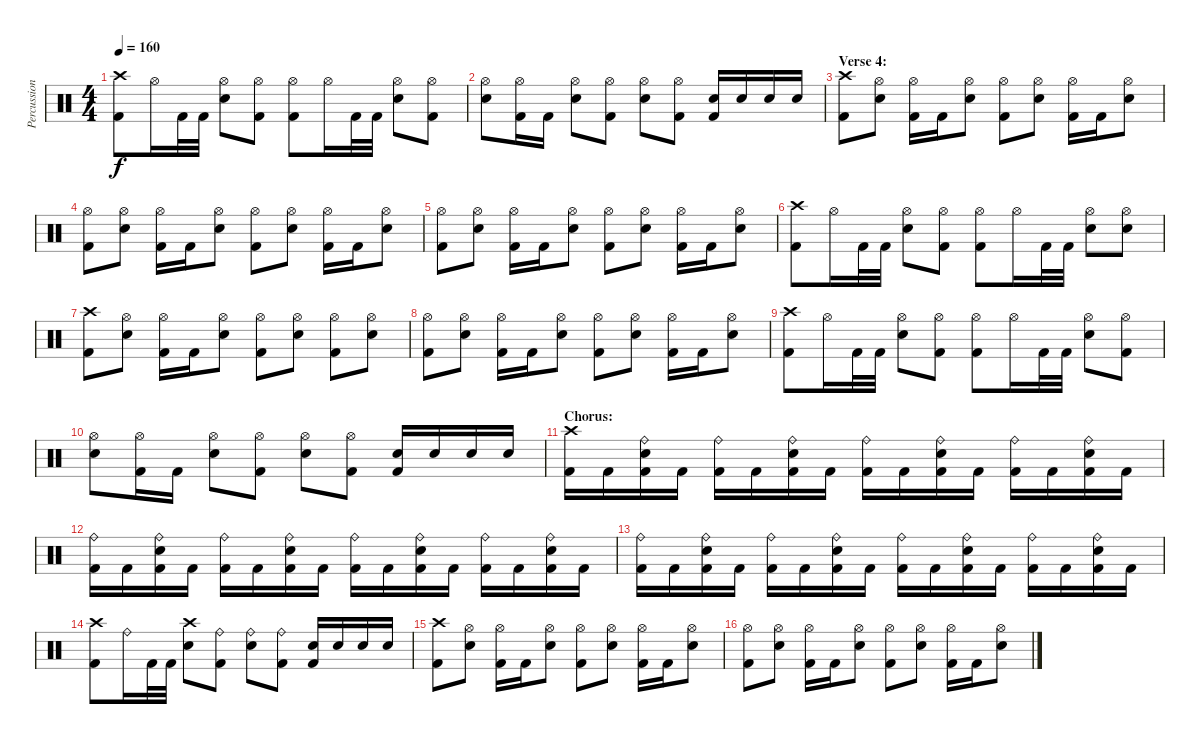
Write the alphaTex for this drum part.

\track ("Percussion" "Percussion") {instrument percussion}
\staff {score}
\articulation defaults
\ts (4 4)
\tempo 160
\clef neutral
\ks c
("Crash high (hit)" "Kick (hit) 2").8{dy f} "Hi-Hat (open)".16 "Kick (hit) 2".32 "Kick (hit) 2".32 ("Hi-Hat (open)" "Electric Snare (hit)").8 ("Hi-Hat (open)" "Kick (hit) 2").8 ("Hi-Hat (open)" "Kick (hit) 2").8 "Hi-Hat (open)".16 "Kick (hit) 2".32 "Kick (hit) 2".32 ("Hi-Hat (open)" "Electric Snare (hit)").8 ("Hi-Hat (open)" "Kick (hit) 2").8 |
("Hi-Hat (open)" "Electric Snare (hit)").8 ("Hi-Hat (open)" "Kick (hit) 2").16 "Kick (hit) 2".16 ("Hi-Hat (open)" "Electric Snare (hit)").8 ("Hi-Hat (open)" "Kick (hit) 2").8 ("Hi-Hat (open)" "Electric Snare (hit)").8 ("Hi-Hat (open)" "Kick (hit) 2").8 ("Electric Snare (hit)" "Kick (hit) 2").16 "Electric Snare (hit)".16 "Electric Snare (hit)".16 "Electric Snare (hit)".16 |
\section ("" "Verse 4:")
("Crash high (hit)" "Kick (hit) 2").8 ("Hi-Hat (open)" "Electric Snare (hit)").8 ("Hi-Hat (open)" "Kick (hit) 2").16 "Kick (hit) 2".16 ("Hi-Hat (open)" "Electric Snare (hit)").8 ("Hi-Hat (open)" "Kick (hit) 2").8 ("Hi-Hat (open)" "Electric Snare (hit)").8 ("Hi-Hat (open)" "Kick (hit) 2").16 "Kick (hit) 2".16 ("Hi-Hat (open)" "Electric Snare (hit)").8 |
("Hi-Hat (open)" "Kick (hit) 2").8 ("Hi-Hat (open)" "Electric Snare (hit)").8 ("Hi-Hat (open)" "Kick (hit) 2").16 "Kick (hit) 2".16 ("Hi-Hat (open)" "Electric Snare (hit)").8 ("Hi-Hat (open)" "Kick (hit) 2").8 ("Hi-Hat (open)" "Electric Snare (hit)").8 ("Hi-Hat (open)" "Kick (hit) 2").16 "Kick (hit) 2".16 ("Hi-Hat (open)" "Electric Snare (hit)").8 |
("Hi-Hat (open)" "Kick (hit) 2").8 ("Hi-Hat (open)" "Electric Snare (hit)").8 ("Hi-Hat (open)" "Kick (hit) 2").16 "Kick (hit) 2".16 ("Hi-Hat (open)" "Electric Snare (hit)").8 ("Hi-Hat (open)" "Kick (hit) 2").8 ("Hi-Hat (open)" "Electric Snare (hit)").8 ("Hi-Hat (open)" "Kick (hit) 2").16 "Kick (hit) 2".16 ("Hi-Hat (open)" "Electric Snare (hit)").8 |
("Crash high (hit)" "Kick (hit) 2").8 "Hi-Hat (open)".16 "Kick (hit) 2".32 "Kick (hit) 2".32 ("Hi-Hat (open)" "Electric Snare (hit)").8 ("Hi-Hat (open)" "Kick (hit) 2").8 ("Hi-Hat (open)" "Kick (hit) 2").8 "Hi-Hat (open)".16 "Kick (hit) 2".32 "Kick (hit) 2".32 ("Hi-Hat (open)" "Electric Snare (hit)").8 ("Hi-Hat (open)" "Electric Snare (hit)").8 |
("Crash high (hit)" "Kick (hit) 2").8 ("Hi-Hat (open)" "Electric Snare (hit)").8 ("Hi-Hat (open)" "Kick (hit) 2").16 "Kick (hit) 2".16 ("Hi-Hat (open)" "Electric Snare (hit)").8 ("Hi-Hat (open)" "Kick (hit) 2").8 ("Hi-Hat (open)" "Electric Snare (hit)").8 ("Hi-Hat (open)" "Kick (hit) 2").8 ("Hi-Hat (open)" "Electric Snare (hit)").8 |
("Hi-Hat (open)" "Kick (hit) 2").8 ("Hi-Hat (open)" "Electric Snare (hit)").8 ("Hi-Hat (open)" "Kick (hit) 2").16 "Kick (hit) 2".16 ("Hi-Hat (open)" "Electric Snare (hit)").8 ("Hi-Hat (open)" "Kick (hit) 2").8 ("Hi-Hat (open)" "Electric Snare (hit)").8 ("Hi-Hat (open)" "Kick (hit) 2").16 "Kick (hit) 2".16 ("Hi-Hat (open)" "Electric Snare (hit)").8 |
("Crash high (hit)" "Kick (hit) 2").8 "Hi-Hat (open)".16 "Kick (hit) 2".32 "Kick (hit) 2".32 ("Hi-Hat (open)" "Electric Snare (hit)").8 ("Hi-Hat (open)" "Kick (hit) 2").8 ("Hi-Hat (open)" "Kick (hit) 2").8 "Hi-Hat (open)".16 "Kick (hit) 2".32 "Kick (hit) 2".32 ("Hi-Hat (open)" "Electric Snare (hit)").8 ("Hi-Hat (open)" "Kick (hit) 2").8 |
("Hi-Hat (open)" "Electric Snare (hit)").8 ("Hi-Hat (open)" "Kick (hit) 2").16 "Kick (hit) 2".16 ("Hi-Hat (open)" "Electric Snare (hit)").8 ("Hi-Hat (open)" "Kick (hit) 2").8 ("Hi-Hat (open)" "Electric Snare (hit)").8 ("Hi-Hat (open)" "Kick (hit) 2").8 ("Electric Snare (hit)" "Kick (hit) 2").16 "Electric Snare (hit)".16 "Electric Snare (hit)".16 "Electric Snare (hit)".16 |
\section ("" "Chorus:")
("Crash high (hit)" "Kick (hit) 2").16 "Kick (hit) 2".16 ("Ride (bell)" "Electric Snare (hit)" "Kick (hit) 2").16 "Kick (hit) 2".16 ("Ride (bell)" "Kick (hit) 2").16 "Kick (hit) 2".16 ("Ride (bell)" "Electric Snare (hit)" "Kick (hit) 2").16 "Kick (hit) 2".16 ("Ride (bell)" "Kick (hit) 2").16 "Kick (hit) 2".16 ("Ride (bell)" "Electric Snare (hit)" "Kick (hit) 2").16 "Kick (hit) 2".16 ("Ride (bell)" "Kick (hit) 2").16 "Kick (hit) 2".16 ("Ride (bell)" "Electric Snare (hit)" "Kick (hit) 2").16 "Kick (hit) 2".16 |
("Ride (bell)" "Kick (hit) 2").16 "Kick (hit) 2".16 ("Ride (bell)" "Electric Snare (hit)" "Kick (hit) 2").16 "Kick (hit) 2".16 ("Ride (bell)" "Kick (hit) 2").16 "Kick (hit) 2".16 ("Ride (bell)" "Electric Snare (hit)" "Kick (hit) 2").16 "Kick (hit) 2".16 ("Ride (bell)" "Kick (hit) 2").16 "Kick (hit) 2".16 ("Ride (bell)" "Electric Snare (hit)" "Kick (hit) 2").16 "Kick (hit) 2".16 ("Ride (bell)" "Kick (hit) 2").16 "Kick (hit) 2".16 ("Ride (bell)" "Electric Snare (hit)" "Kick (hit) 2").16 "Kick (hit) 2".16 |
("Ride (bell)" "Kick (hit) 2").16 "Kick (hit) 2".16 ("Ride (bell)" "Electric Snare (hit)" "Kick (hit) 2").16 "Kick (hit) 2".16 ("Ride (bell)" "Kick (hit) 2").16 "Kick (hit) 2".16 ("Ride (bell)" "Electric Snare (hit)" "Kick (hit) 2").16 "Kick (hit) 2".16 ("Ride (bell)" "Kick (hit) 2").16 "Kick (hit) 2".16 ("Ride (bell)" "Electric Snare (hit)" "Kick (hit) 2").16 "Kick (hit) 2".16 ("Ride (bell)" "Kick (hit) 2").16 "Kick (hit) 2".16 ("Ride (bell)" "Electric Snare (hit)" "Kick (hit) 2").16 "Kick (hit) 2".16 |
("Crash high (hit)" "Kick (hit) 2").8 "Ride (bell)".16 "Kick (hit) 2".32 "Kick (hit) 2".32 ("Crash high (hit)" "Electric Snare (hit)").8 ("Ride (bell)" "Kick (hit) 2").8 ("Ride (bell)" "Electric Snare (hit)").8 ("Ride (bell)" "Kick (hit) 2").8 ("Electric Snare (hit)" "Kick (hit) 2").16 "Electric Snare (hit)".16 "Electric Snare (hit)".16 "Electric Snare (hit)".16 |
("Crash high (hit)" "Kick (hit) 2").8 ("Hi-Hat (open)" "Electric Snare (hit)").8 ("Hi-Hat (open)" "Kick (hit) 2").16 "Kick (hit) 2".16 ("Hi-Hat (open)" "Electric Snare (hit)").8 ("Hi-Hat (open)" "Kick (hit) 2").8 ("Hi-Hat (open)" "Electric Snare (hit)").8 ("Hi-Hat (open)" "Kick (hit) 2").16 "Kick (hit) 2".16 ("Hi-Hat (open)" "Electric Snare (hit)").8 |
("Hi-Hat (open)" "Kick (hit) 2").8 ("Hi-Hat (open)" "Electric Snare (hit)").8 ("Hi-Hat (open)" "Kick (hit) 2").16 "Kick (hit) 2".16 ("Hi-Hat (open)" "Electric Snare (hit)").8 ("Hi-Hat (open)" "Kick (hit) 2").8 ("Hi-Hat (open)" "Electric Snare (hit)").8 ("Hi-Hat (open)" "Kick (hit) 2").16 "Kick (hit) 2".16 ("Hi-Hat (open)" "Electric Snare (hit)").8
